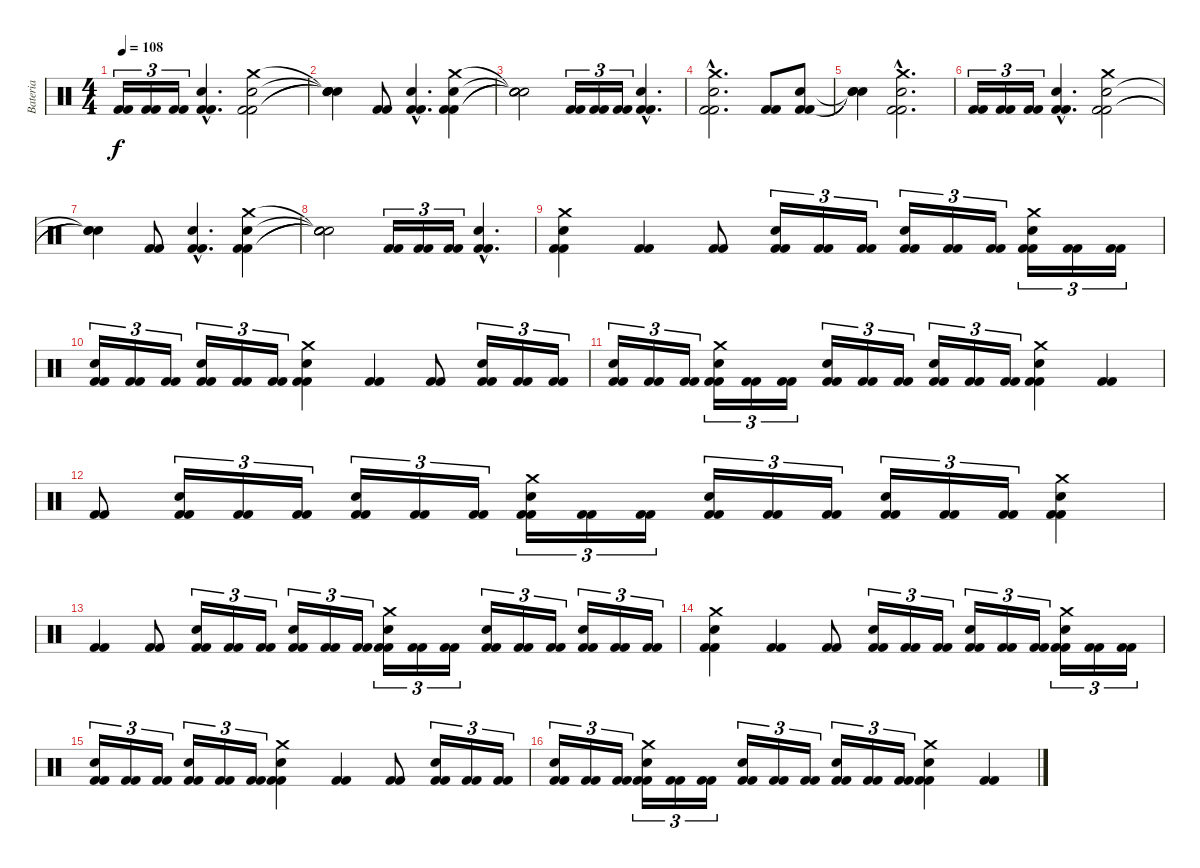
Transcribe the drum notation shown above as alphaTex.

\track ("Bateria" "Bateria") {instrument percussion}
\staff {score}
\articulation defaults
\ts (4 4)
\tempo 108
\clef neutral
\ks c
("Kick (hit) 2" "Kick (hit) 2").16{tu (3 2) dy f} ("Kick (hit) 2" "Kick (hit) 2").16{tu (3 2)} ("Kick (hit) 2" "Kick (hit) 2").16{tu (3 2)} ("Kick (hit) 2"{hac} "Kick (hit) 2"{hac} "Snare (hit) 2"{hac}).4{d} ("Kick (hit) 2" "Kick (hit) 2" "Snare (hit) 2" "Crash medium (hit)").2 |
("Snare (hit)"{t} "Snare (hit)"{t} "Snare (hit)"{t} "Snare (hit)"{t}).4 ("Kick (hit) 2" "Kick (hit) 2").8 ("Kick (hit) 2"{hac} "Kick (hit) 2"{hac} "Snare (hit) 2"{hac}).4{d} ("Kick (hit) 2" "Kick (hit) 2" "Snare (hit) 2" "Crash medium (hit)").4 |
("Snare (hit)"{t} "Snare (hit)"{t} "Snare (hit)"{t} "Snare (hit)"{t}).2 ("Kick (hit) 2" "Kick (hit) 2").16{tu (3 2)} ("Kick (hit) 2" "Kick (hit) 2").16{tu (3 2)} ("Kick (hit) 2" "Kick (hit) 2").16{tu (3 2)} ("Kick (hit) 2"{hac} "Kick (hit) 2"{hac} "Snare (hit) 2"{hac}).4{d} |
("Kick (hit) 2"{hac} "Kick (hit) 2"{hac} "Snare (hit) 2"{hac} "Crash medium (hit)"{hac}).2{d} ("Kick (hit) 2" "Kick (hit) 2").8 ("Kick (hit) 2" "Kick (hit) 2" "Snare (hit) 2").8 |
("Snare (hit)"{t} "Snare (hit)"{t} "Snare (hit)"{t}).4 ("Kick (hit) 2"{hac} "Kick (hit) 2"{hac} "Snare (hit) 2"{hac} "Crash medium (hit)"{hac}).2{d} |
("Kick (hit) 2" "Kick (hit) 2").16{tu (3 2)} ("Kick (hit) 2" "Kick (hit) 2").16{tu (3 2)} ("Kick (hit) 2" "Kick (hit) 2").16{tu (3 2)} ("Kick (hit) 2"{hac} "Kick (hit) 2"{hac} "Snare (hit) 2"{hac}).4{d} ("Kick (hit) 2" "Kick (hit) 2" "Snare (hit) 2" "Crash medium (hit)").2 |
("Snare (hit)"{t} "Snare (hit)"{t} "Snare (hit)"{t}).4 ("Kick (hit) 2" "Kick (hit) 2").8 ("Kick (hit) 2"{hac} "Kick (hit) 2"{hac} "Snare (hit) 2"{hac}).4{d} ("Kick (hit) 2" "Kick (hit) 2" "Snare (hit) 2" "Crash medium (hit)").4 |
("Snare (hit)"{t} "Snare (hit)"{t} "Snare (hit)"{t} "Snare (hit)"{t}).2 ("Kick (hit) 2" "Kick (hit) 2").16{tu (3 2)} ("Kick (hit) 2" "Kick (hit) 2").16{tu (3 2)} ("Kick (hit) 2" "Kick (hit) 2").16{tu (3 2)} ("Kick (hit) 2"{hac} "Kick (hit) 2"{hac} "Snare (hit) 2"{hac}).4{d} |
("Kick (hit) 2" "Kick (hit) 2" "Snare (hit) 2" "Crash medium (hit)").4 ("Kick (hit) 2" "Kick (hit) 2").4 ("Kick (hit) 2" "Kick (hit) 2").8 ("Kick (hit) 2" "Kick (hit) 2" "Snare (hit) 2").16{tu (3 2)} ("Kick (hit) 2" "Kick (hit) 2").16{tu (3 2)} ("Kick (hit) 2" "Kick (hit) 2").16{tu (3 2)} ("Kick (hit) 2" "Kick (hit) 2" "Snare (hit) 2").16{tu (3 2)} ("Kick (hit) 2" "Kick (hit) 2").16{tu (3 2)} ("Kick (hit) 2" "Kick (hit) 2").16{tu (3 2)} ("Kick (hit) 2" "Kick (hit) 2" "Snare (hit) 2" "Crash medium (hit)").16{tu (3 2)} ("Kick (hit) 2" "Kick (hit) 2").16{tu (3 2)} ("Kick (hit) 2" "Kick (hit) 2").16{tu (3 2)} |
("Kick (hit) 2" "Kick (hit) 2" "Snare (hit) 2").16{tu (3 2)} ("Kick (hit) 2" "Kick (hit) 2").16{tu (3 2)} ("Kick (hit) 2" "Kick (hit) 2").16{tu (3 2)} ("Kick (hit) 2" "Kick (hit) 2" "Snare (hit) 2").16{tu (3 2)} ("Kick (hit) 2" "Kick (hit) 2").16{tu (3 2)} ("Kick (hit) 2" "Kick (hit) 2").16{tu (3 2)} ("Kick (hit) 2" "Kick (hit) 2" "Snare (hit) 2" "Crash medium (hit)").4 ("Kick (hit) 2" "Kick (hit) 2").4 ("Kick (hit) 2" "Kick (hit) 2").8 ("Kick (hit) 2" "Kick (hit) 2" "Snare (hit) 2").16{tu (3 2)} ("Kick (hit) 2" "Kick (hit) 2").16{tu (3 2)} ("Kick (hit) 2" "Kick (hit) 2").16{tu (3 2)} |
("Kick (hit) 2" "Kick (hit) 2" "Snare (hit) 2").16{tu (3 2)} ("Kick (hit) 2" "Kick (hit) 2").16{tu (3 2)} ("Kick (hit) 2" "Kick (hit) 2").16{tu (3 2)} ("Kick (hit) 2" "Kick (hit) 2" "Snare (hit) 2" "Crash medium (hit)").16{tu (3 2)} ("Kick (hit) 2" "Kick (hit) 2").16{tu (3 2)} ("Kick (hit) 2" "Kick (hit) 2").16{tu (3 2)} ("Kick (hit) 2" "Kick (hit) 2" "Snare (hit) 2").16{tu (3 2)} ("Kick (hit) 2" "Kick (hit) 2").16{tu (3 2)} ("Kick (hit) 2" "Kick (hit) 2").16{tu (3 2)} ("Kick (hit) 2" "Kick (hit) 2" "Snare (hit) 2").16{tu (3 2)} ("Kick (hit) 2" "Kick (hit) 2").16{tu (3 2)} ("Kick (hit) 2" "Kick (hit) 2").16{tu (3 2)} ("Kick (hit) 2" "Kick (hit) 2" "Snare (hit) 2" "Crash medium (hit)").4 ("Kick (hit) 2" "Kick (hit) 2").4 |
("Kick (hit) 2" "Kick (hit) 2").8 ("Kick (hit) 2" "Kick (hit) 2" "Snare (hit) 2").16{tu (3 2)} ("Kick (hit) 2" "Kick (hit) 2").16{tu (3 2)} ("Kick (hit) 2" "Kick (hit) 2").16{tu (3 2)} ("Kick (hit) 2" "Kick (hit) 2" "Snare (hit) 2").16{tu (3 2)} ("Kick (hit) 2" "Kick (hit) 2").16{tu (3 2)} ("Kick (hit) 2" "Kick (hit) 2").16{tu (3 2)} ("Kick (hit) 2" "Kick (hit) 2" "Snare (hit) 2" "Crash medium (hit)").16{tu (3 2)} ("Kick (hit) 2" "Kick (hit) 2").16{tu (3 2)} ("Kick (hit) 2" "Kick (hit) 2").16{tu (3 2)} ("Kick (hit) 2" "Kick (hit) 2" "Snare (hit) 2").16{tu (3 2)} ("Kick (hit) 2" "Kick (hit) 2").16{tu (3 2)} ("Kick (hit) 2" "Kick (hit) 2").16{tu (3 2)} ("Kick (hit) 2" "Kick (hit) 2" "Snare (hit) 2").16{tu (3 2)} ("Kick (hit) 2" "Kick (hit) 2").16{tu (3 2)} ("Kick (hit) 2" "Kick (hit) 2").16{tu (3 2)} ("Kick (hit) 2" "Kick (hit) 2" "Snare (hit) 2" "Crash medium (hit)").4 |
("Kick (hit) 2" "Kick (hit) 2").4 ("Kick (hit) 2" "Kick (hit) 2").8 ("Kick (hit) 2" "Kick (hit) 2" "Snare (hit) 2").16{tu (3 2)} ("Kick (hit) 2" "Kick (hit) 2").16{tu (3 2)} ("Kick (hit) 2" "Kick (hit) 2").16{tu (3 2)} ("Kick (hit) 2" "Kick (hit) 2" "Snare (hit) 2").16{tu (3 2)} ("Kick (hit) 2" "Kick (hit) 2").16{tu (3 2)} ("Kick (hit) 2" "Kick (hit) 2").16{tu (3 2)} ("Kick (hit) 2" "Kick (hit) 2" "Snare (hit) 2" "Crash medium (hit)").16{tu (3 2)} ("Kick (hit) 2" "Kick (hit) 2").16{tu (3 2)} ("Kick (hit) 2" "Kick (hit) 2").16{tu (3 2)} ("Kick (hit) 2" "Kick (hit) 2" "Snare (hit) 2").16{tu (3 2)} ("Kick (hit) 2" "Kick (hit) 2").16{tu (3 2)} ("Kick (hit) 2" "Kick (hit) 2").16{tu (3 2)} ("Kick (hit) 2" "Kick (hit) 2" "Snare (hit) 2").16{tu (3 2)} ("Kick (hit) 2" "Kick (hit) 2").16{tu (3 2)} ("Kick (hit) 2" "Kick (hit) 2").16{tu (3 2)} |
("Kick (hit) 2" "Kick (hit) 2" "Snare (hit) 2" "Crash medium (hit)").4 ("Kick (hit) 2" "Kick (hit) 2").4 ("Kick (hit) 2" "Kick (hit) 2").8 ("Kick (hit) 2" "Kick (hit) 2" "Snare (hit) 2").16{tu (3 2)} ("Kick (hit) 2" "Kick (hit) 2").16{tu (3 2)} ("Kick (hit) 2" "Kick (hit) 2").16{tu (3 2)} ("Kick (hit) 2" "Kick (hit) 2" "Snare (hit) 2").16{tu (3 2)} ("Kick (hit) 2" "Kick (hit) 2").16{tu (3 2)} ("Kick (hit) 2" "Kick (hit) 2").16{tu (3 2)} ("Kick (hit) 2" "Kick (hit) 2" "Snare (hit) 2" "Crash medium (hit)").16{tu (3 2)} ("Kick (hit) 2" "Kick (hit) 2").16{tu (3 2)} ("Kick (hit) 2" "Kick (hit) 2").16{tu (3 2)} |
("Kick (hit) 2" "Kick (hit) 2" "Snare (hit) 2").16{tu (3 2)} ("Kick (hit) 2" "Kick (hit) 2").16{tu (3 2)} ("Kick (hit) 2" "Kick (hit) 2").16{tu (3 2)} ("Kick (hit) 2" "Kick (hit) 2" "Snare (hit) 2").16{tu (3 2)} ("Kick (hit) 2" "Kick (hit) 2").16{tu (3 2)} ("Kick (hit) 2" "Kick (hit) 2").16{tu (3 2)} ("Kick (hit) 2" "Kick (hit) 2" "Snare (hit) 2" "Crash medium (hit)").4 ("Kick (hit) 2" "Kick (hit) 2").4 ("Kick (hit) 2" "Kick (hit) 2").8 ("Kick (hit) 2" "Kick (hit) 2" "Snare (hit) 2").16{tu (3 2)} ("Kick (hit) 2" "Kick (hit) 2").16{tu (3 2)} ("Kick (hit) 2" "Kick (hit) 2").16{tu (3 2)} |
("Kick (hit) 2" "Kick (hit) 2" "Snare (hit) 2").16{tu (3 2)} ("Kick (hit) 2" "Kick (hit) 2").16{tu (3 2)} ("Kick (hit) 2" "Kick (hit) 2").16{tu (3 2)} ("Kick (hit) 2" "Kick (hit) 2" "Snare (hit) 2" "Crash medium (hit)").16{tu (3 2)} ("Kick (hit) 2" "Kick (hit) 2").16{tu (3 2)} ("Kick (hit) 2" "Kick (hit) 2").16{tu (3 2)} ("Kick (hit) 2" "Kick (hit) 2" "Snare (hit) 2").16{tu (3 2)} ("Kick (hit) 2" "Kick (hit) 2").16{tu (3 2)} ("Kick (hit) 2" "Kick (hit) 2").16{tu (3 2)} ("Kick (hit) 2" "Kick (hit) 2" "Snare (hit) 2").16{tu (3 2)} ("Kick (hit) 2" "Kick (hit) 2").16{tu (3 2)} ("Kick (hit) 2" "Kick (hit) 2").16{tu (3 2)} ("Kick (hit) 2" "Kick (hit) 2" "Snare (hit) 2" "Crash medium (hit)").4 ("Kick (hit) 2" "Kick (hit) 2").4
